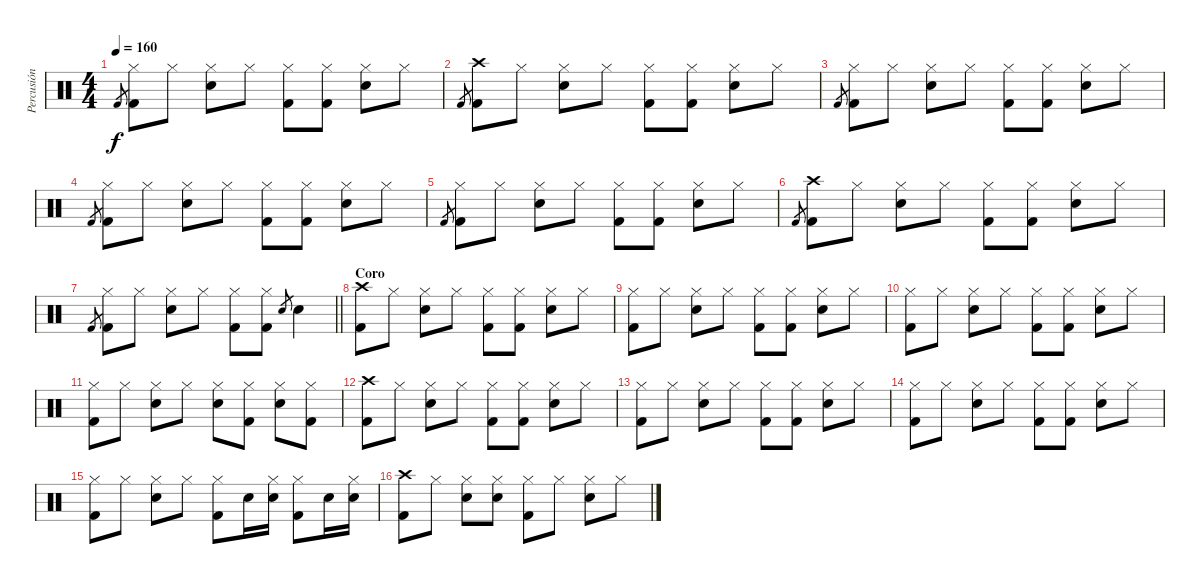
\track ("Percusión" "Percusión") {instrument percussion}
\staff {score}
\articulation defaults
\ts (4 4)
\tempo 160
\clef neutral
\ks c "Kick (hit) 2".8{gr dy f}
("Hi-Hat (closed)" "Kick (hit) 2").8 "Hi-Hat (closed)".8 ("Hi-Hat (closed)" "Snare (hit) 2").8 "Hi-Hat (closed)".8 ("Hi-Hat (closed)" "Kick (hit) 2").8 ("Hi-Hat (closed)" "Kick (hit) 2").8 ("Hi-Hat (closed)" "Snare (hit) 2").8 "Hi-Hat (closed)".8 |
"Kick (hit) 2".8{gr} ("Crash high (hit)" "Kick (hit) 2").8 "Hi-Hat (closed)".8 ("Hi-Hat (closed)" "Snare (hit) 2").8 "Hi-Hat (closed)".8 ("Hi-Hat (closed)" "Kick (hit) 2").8 ("Hi-Hat (closed)" "Kick (hit) 2").8 ("Hi-Hat (closed)" "Snare (hit) 2").8 "Hi-Hat (closed)".8 |
"Kick (hit) 2".8{gr} ("Hi-Hat (closed)" "Kick (hit) 2").8 "Hi-Hat (closed)".8 ("Hi-Hat (closed)" "Snare (hit) 2").8 "Hi-Hat (closed)".8 ("Hi-Hat (closed)" "Kick (hit) 2").8 ("Hi-Hat (closed)" "Kick (hit) 2").8 ("Hi-Hat (closed)" "Snare (hit) 2").8 "Hi-Hat (closed)".8 |
"Kick (hit) 2".8{gr} ("Hi-Hat (closed)" "Kick (hit) 2").8 "Hi-Hat (closed)".8 ("Hi-Hat (closed)" "Snare (hit) 2").8 "Hi-Hat (closed)".8 ("Hi-Hat (closed)" "Kick (hit) 2").8 ("Hi-Hat (closed)" "Kick (hit) 2").8 ("Hi-Hat (closed)" "Snare (hit) 2").8 "Hi-Hat (closed)".8 |
"Kick (hit) 2".8{gr} ("Hi-Hat (closed)" "Kick (hit) 2").8 "Hi-Hat (closed)".8 ("Hi-Hat (closed)" "Snare (hit) 2").8 "Hi-Hat (closed)".8 ("Hi-Hat (closed)" "Kick (hit) 2").8 ("Hi-Hat (closed)" "Kick (hit) 2").8 ("Hi-Hat (closed)" "Snare (hit) 2").8 "Hi-Hat (closed)".8 |
"Kick (hit) 2".8{gr} ("Crash high (hit)" "Kick (hit) 2").8 "Hi-Hat (closed)".8 ("Hi-Hat (closed)" "Snare (hit) 2").8 "Hi-Hat (closed)".8 ("Hi-Hat (closed)" "Kick (hit) 2").8 ("Hi-Hat (closed)" "Kick (hit) 2").8 ("Hi-Hat (closed)" "Snare (hit) 2").8 "Hi-Hat (closed)".8 |
\barLineRight lightlight "Kick (hit) 2".8{gr}
("Hi-Hat (closed)" "Kick (hit) 2").8 "Hi-Hat (closed)".8 ("Hi-Hat (closed)" "Snare (hit) 2").8 "Hi-Hat (closed)".8 ("Hi-Hat (closed)" "Kick (hit) 2").8 ("Hi-Hat (closed)" "Kick (hit) 2").8 "Snare (hit) 2".8{gr} "Snare (hit) 2".4 |
\section ("" "Coro")
("Crash high (hit)" "Kick (hit) 2").8 "Hi-Hat (closed)".8 ("Hi-Hat (closed)" "Snare (hit) 2").8 "Hi-Hat (closed)".8 ("Hi-Hat (closed)" "Kick (hit) 2").8 ("Hi-Hat (closed)" "Kick (hit) 2").8 ("Hi-Hat (closed)" "Snare (hit) 2").8 "Hi-Hat (closed)".8 |
("Hi-Hat (closed)" "Kick (hit) 2").8 "Hi-Hat (closed)".8 ("Hi-Hat (closed)" "Snare (hit) 2").8 "Hi-Hat (closed)".8 ("Hi-Hat (closed)" "Kick (hit) 2").8 ("Hi-Hat (closed)" "Kick (hit) 2").8 ("Hi-Hat (closed)" "Snare (hit) 2").8 "Hi-Hat (closed)".8 |
("Hi-Hat (closed)" "Kick (hit) 2").8 "Hi-Hat (closed)".8 ("Hi-Hat (closed)" "Snare (hit) 2").8 "Hi-Hat (closed)".8 ("Hi-Hat (closed)" "Kick (hit) 2").8 ("Hi-Hat (closed)" "Kick (hit) 2").8 ("Hi-Hat (closed)" "Snare (hit) 2").8 "Hi-Hat (closed)".8 |
("Hi-Hat (closed)" "Kick (hit) 2").8 "Hi-Hat (closed)".8 ("Hi-Hat (closed)" "Snare (hit) 2").8 "Hi-Hat (closed)".8 ("Hi-Hat (closed)" "Electric Snare (hit)").8 ("Hi-Hat (closed)" "Kick (hit) 2").8 ("Hi-Hat (closed)" "Electric Snare (hit)").8 ("Hi-Hat (closed)" "Kick (hit) 2").8 |
("Crash high (hit)" "Kick (hit) 2").8 "Hi-Hat (closed)".8 ("Hi-Hat (closed)" "Snare (hit) 2").8 "Hi-Hat (closed)".8 ("Hi-Hat (closed)" "Kick (hit) 2").8 ("Hi-Hat (closed)" "Kick (hit) 2").8 ("Hi-Hat (closed)" "Snare (hit) 2").8 "Hi-Hat (closed)".8 |
("Hi-Hat (closed)" "Kick (hit) 2").8 "Hi-Hat (closed)".8 ("Hi-Hat (closed)" "Snare (hit) 2").8 "Hi-Hat (closed)".8 ("Hi-Hat (closed)" "Kick (hit) 2").8 ("Hi-Hat (closed)" "Kick (hit) 2").8 ("Hi-Hat (closed)" "Snare (hit) 2").8 "Hi-Hat (closed)".8 |
("Hi-Hat (closed)" "Kick (hit) 2").8 "Hi-Hat (closed)".8 ("Hi-Hat (closed)" "Snare (hit) 2").8 "Hi-Hat (closed)".8 ("Hi-Hat (closed)" "Kick (hit) 2").8 ("Hi-Hat (closed)" "Kick (hit) 2").8 ("Hi-Hat (closed)" "Snare (hit) 2").8 "Hi-Hat (closed)".8 |
("Hi-Hat (closed)" "Kick (hit) 2").8 "Hi-Hat (closed)".8 ("Hi-Hat (closed)" "Snare (hit) 2").8 "Hi-Hat (closed)".8 ("Hi-Hat (closed)" "Kick (hit) 2").8 "Electric Snare (hit)".16 ("Hi-Hat (closed)" "Electric Snare (hit)").16 ("Hi-Hat (closed)" "Kick (hit) 2").8 "Electric Snare (hit)".16 ("Hi-Hat (closed)" "Electric Snare (hit)").16 |
("Crash high (hit)" "Kick (hit) 2").8 "Hi-Hat (closed)".8 ("Hi-Hat (closed)" "Snare (hit) 2").8 ("Hi-Hat (closed)" "Snare (hit) 2").8 ("Hi-Hat (closed)" "Kick (hit) 2").8 "Hi-Hat (closed)".8 ("Hi-Hat (closed)" "Snare (hit) 2").8 "Hi-Hat (closed)".8
